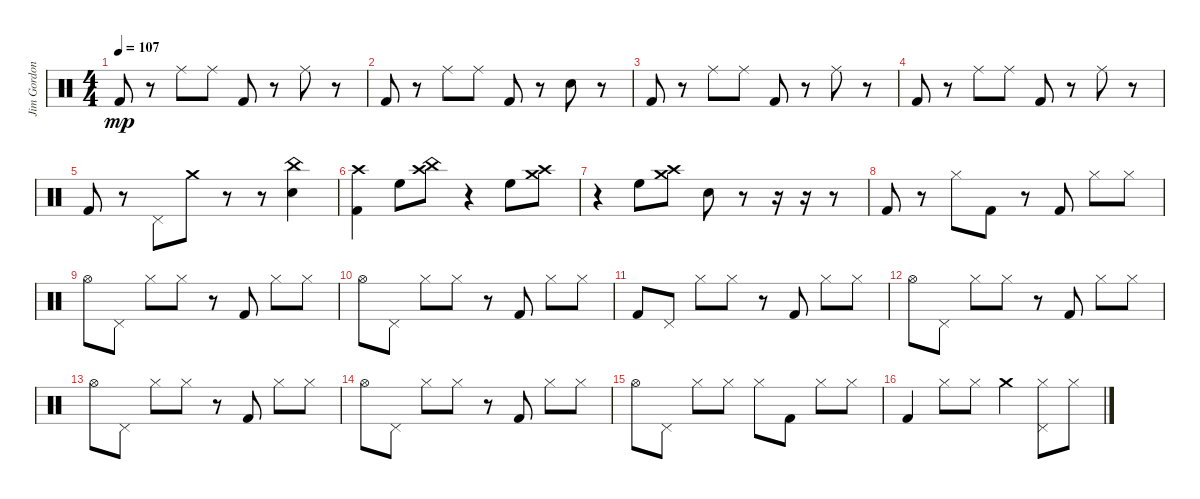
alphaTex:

\track ("Jim Gordon (Drums)" "Jim Gordon") {instrument percussion}
\staff {score}
\articulation defaults
\ts (4 4)
\tempo 107
\clef neutral
\ks c "Kick (hit) 2".8{dy mp}
r.8 "Ride (middle)".8 "Ride (middle)".8 "Kick (hit) 2".8 r.8 "Ride (middle)".8 r.8 |
"Kick (hit) 2".8 r.8 "Ride (middle)".8 "Ride (middle)".8 "Kick (hit) 2".8 r.8 "Snare (hit) 2".8 r.8 |
"Kick (hit) 2".8 r.8 "Ride (middle)".8 "Ride (middle)".8 "Kick (hit) 2".8 r.8 "Ride (middle)".8 r.8 |
"Kick (hit) 2".8 r.8 "Ride (middle)".8 "Ride (middle)".8 "Kick (hit) 2".8 r.8 "Ride (middle)".8 r.8 |
"Kick (hit) 2".8 r.8 "Pedal Hi-Hat (hit)".8 "Crash medium (hit)".8 r.8 r.8 ("Snare (hit) 2" "China (hit)").4 |
("Crash high (hit)" "Kick (hit) 2").4 "High Floor Tom (hit)".8 ("Crash high (hit)" "China (hit)").8 r.4 "High Floor Tom (hit)".8 ("Crash high (hit)" "Crash medium (hit)").8 |
r.4 "High Floor Tom (hit)".8 ("Crash high (hit)" "Crash medium (hit)").8 "Snare (hit) 2".8 r.8 r.16 r.16 r.8 |
"Kick (hit) 2".8 r.8 "Hi-Hat (closed)".8 "Kick (hit) 2".8 r.8 "Kick (hit) 2".8 "Hi-Hat (closed)".8 "Hi-Hat (closed)".8 |
"Hi-Hat (open)".8 "Pedal Hi-Hat (hit)".8 "Hi-Hat (closed)".8 "Hi-Hat (closed)".8 r.8 "Kick (hit) 2".8 "Hi-Hat (closed)".8 "Hi-Hat (closed)".8 |
"Hi-Hat (open)".8 "Pedal Hi-Hat (hit)".8 "Hi-Hat (closed)".8 "Hi-Hat (closed)".8 r.8 "Kick (hit) 2".8 "Hi-Hat (closed)".8 "Hi-Hat (closed)".8 |
"Kick (hit) 2".8 "Pedal Hi-Hat (hit)".8 "Hi-Hat (closed)".8 "Hi-Hat (closed)".8 r.8 "Kick (hit) 2".8 "Hi-Hat (closed)".8 "Hi-Hat (closed)".8 |
"Hi-Hat (open)".8 "Pedal Hi-Hat (hit)".8 "Hi-Hat (closed)".8 "Hi-Hat (closed)".8 r.8 "Kick (hit) 2".8 "Hi-Hat (closed)".8 "Hi-Hat (closed)".8 |
"Hi-Hat (open)".8 "Pedal Hi-Hat (hit)".8 "Hi-Hat (closed)".8 "Hi-Hat (closed)".8 r.8 "Kick (hit) 2".8 "Hi-Hat (closed)".8 "Hi-Hat (closed)".8 |
"Hi-Hat (open)".8 "Pedal Hi-Hat (hit)".8 "Hi-Hat (closed)".8 "Hi-Hat (closed)".8 r.8 "Kick (hit) 2".8 "Hi-Hat (closed)".8 "Hi-Hat (closed)".8 |
"Hi-Hat (open)".8 "Pedal Hi-Hat (hit)".8 "Hi-Hat (closed)".8 "Hi-Hat (closed)".8 "Hi-Hat (closed)".8 "Kick (hit) 2".8 "Hi-Hat (closed)".8 "Hi-Hat (closed)".8 |
"Kick (hit) 2".4 "Hi-Hat (closed)".8 "Hi-Hat (closed)".8 "Crash medium (hit)".4 ("Hi-Hat (closed)" "Pedal Hi-Hat (hit)").8 "Hi-Hat (closed)".8
